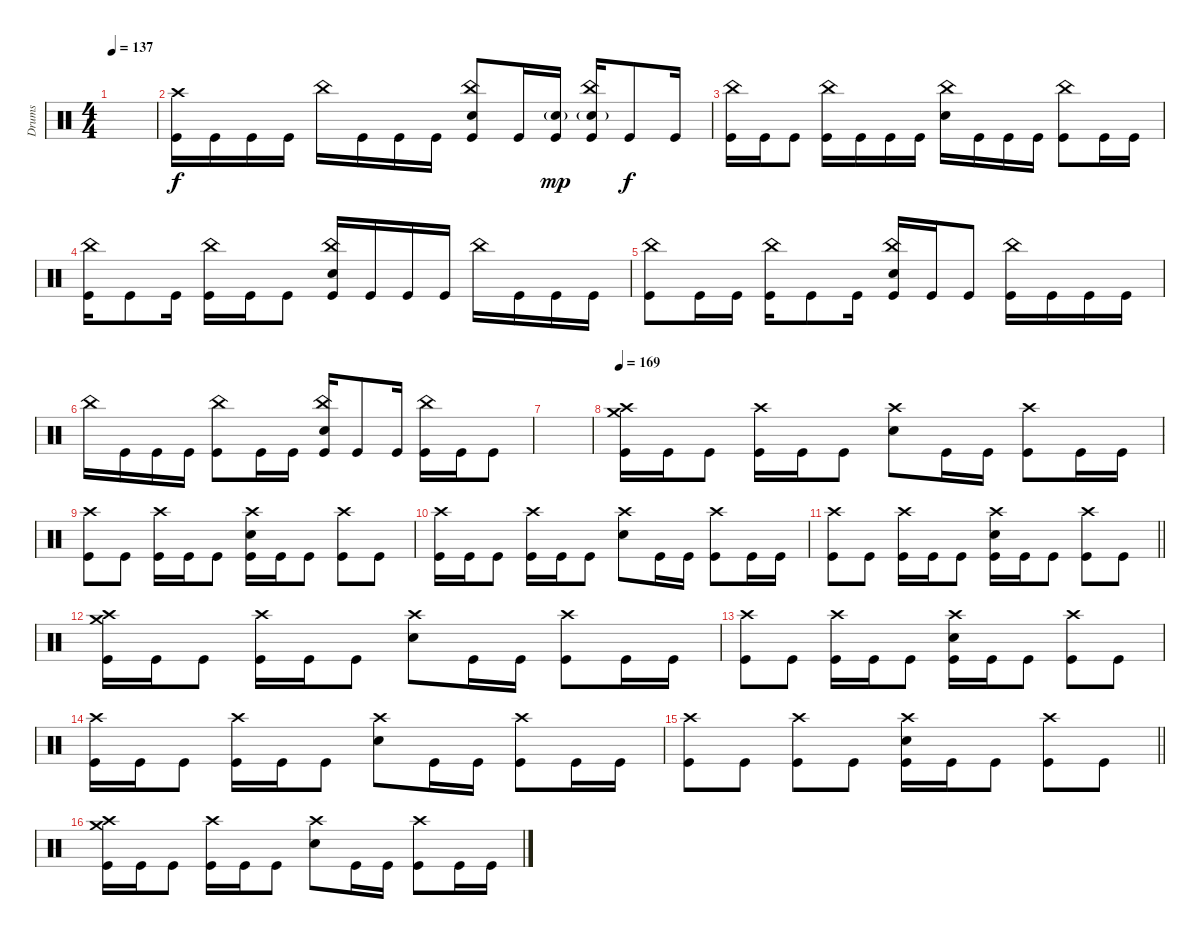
\track ("Drums" "Drums") {instrument percussion}
\staff
\articulation defaults
\ts (4 4)
\tempo 137
\clef neutral
\ks c
|
("Crash high (hit)" "Kick (hit)").16 "Kick (hit)".16 "Kick (hit)".16 "Kick (hit)".16 "China (hit)".16 "Kick (hit)".16 "Kick (hit)".16 "Kick (hit)".16 ("China (hit)" "Electric Snare (hit)" "Kick (hit)").8 "Kick (hit)".16 ("Electric Snare (hit)"{g} "Kick (hit)").16{dy mp} ("China (hit)" "Electric Snare (hit)"{g} "Kick (hit)").16 "Kick (hit)".8{dy f} "Kick (hit)".16 |
("China (hit)" "Kick (hit)").16 "Kick (hit)".16 "Kick (hit)".8 ("China (hit)" "Kick (hit)").16 "Kick (hit)".16 "Kick (hit)".16 "Kick (hit)".16 ("China (hit)" "Electric Snare (hit)").16 "Kick (hit)".16 "Kick (hit)".16 "Kick (hit)".16 ("China (hit)" "Kick (hit)").8 "Kick (hit)".16 "Kick (hit)".16 |
("China (hit)" "Kick (hit)").16 "Kick (hit)".8 "Kick (hit)".16 ("China (hit)" "Kick (hit)").16 "Kick (hit)".16 "Kick (hit)".8 ("China (hit)" "Electric Snare (hit)" "Kick (hit)").16 "Kick (hit)".16 "Kick (hit)".16 "Kick (hit)".16 "China (hit)".16 "Kick (hit)".16 "Kick (hit)".16 "Kick (hit)".16 |
("China (hit)" "Kick (hit)").8 "Kick (hit)".16 "Kick (hit)".16 ("China (hit)" "Kick (hit)").16 "Kick (hit)".8 "Kick (hit)".16 ("China (hit)" "Electric Snare (hit)" "Kick (hit)").16 "Kick (hit)".16 "Kick (hit)".8 ("China (hit)" "Kick (hit)").16 "Kick (hit)".16 "Kick (hit)".16 "Kick (hit)".16 |
"China (hit)".16 "Kick (hit)".16 "Kick (hit)".16 "Kick (hit)".16 ("China (hit)" "Kick (hit)").8 "Kick (hit)".16 "Kick (hit)".16 ("China (hit)" "Electric Snare (hit)" "Kick (hit)").16 "Kick (hit)".8 "Kick (hit)".16 ("China (hit)" "Kick (hit)").16 "Kick (hit)".16 "Kick (hit)".8 |
|
\tempo 169
("Crash high (hit)" "Crash medium (hit)" "Kick (hit)").16 "Kick (hit)".16 "Kick (hit)".8 ("Crash high (hit)" "Kick (hit)").16 "Kick (hit)".16 "Kick (hit)".8 ("Crash high (hit)" "Electric Snare (hit)").8 "Kick (hit)".16 "Kick (hit)".16 ("Crash high (hit)" "Kick (hit)").8 "Kick (hit)".16 "Kick (hit)".16 |
("Crash high (hit)" "Kick (hit)").8 "Kick (hit)".8 ("Crash high (hit)" "Kick (hit)").16 "Kick (hit)".16 "Kick (hit)".8 ("Crash high (hit)" "Electric Snare (hit)" "Kick (hit)").16 "Kick (hit)".16 "Kick (hit)".8 ("Crash high (hit)" "Kick (hit)").8 "Kick (hit)".8 |
("Crash high (hit)" "Kick (hit)").16 "Kick (hit)".16 "Kick (hit)".8 ("Crash high (hit)" "Kick (hit)").16 "Kick (hit)".16 "Kick (hit)".8 ("Crash high (hit)" "Electric Snare (hit)").8 "Kick (hit)".16 "Kick (hit)".16 ("Crash high (hit)" "Kick (hit)").8 "Kick (hit)".16 "Kick (hit)".16 |
\barLineRight lightlight
("Crash high (hit)" "Kick (hit)").8 "Kick (hit)".8 ("Crash high (hit)" "Kick (hit)").16 "Kick (hit)".16 "Kick (hit)".8 ("Crash high (hit)" "Electric Snare (hit)" "Kick (hit)").16 "Kick (hit)".16 "Kick (hit)".8 ("Crash high (hit)" "Kick (hit)").8 "Kick (hit)".8 |
("Crash high (hit)" "Crash medium (hit)" "Kick (hit)").16 "Kick (hit)".16 "Kick (hit)".8 ("Crash high (hit)" "Kick (hit)").16 "Kick (hit)".16 "Kick (hit)".8 ("Crash high (hit)" "Electric Snare (hit)").8 "Kick (hit)".16 "Kick (hit)".16 ("Crash high (hit)" "Kick (hit)").8 "Kick (hit)".16 "Kick (hit)".16 |
("Crash high (hit)" "Kick (hit)").8 "Kick (hit)".8 ("Crash high (hit)" "Kick (hit)").16 "Kick (hit)".16 "Kick (hit)".8 ("Crash high (hit)" "Electric Snare (hit)" "Kick (hit)").16 "Kick (hit)".16 "Kick (hit)".8 ("Crash high (hit)" "Kick (hit)").8 "Kick (hit)".8 |
("Crash high (hit)" "Kick (hit)").16 "Kick (hit)".16 "Kick (hit)".8 ("Crash high (hit)" "Kick (hit)").16 "Kick (hit)".16 "Kick (hit)".8 ("Crash high (hit)" "Electric Snare (hit)").8 "Kick (hit)".16 "Kick (hit)".16 ("Crash high (hit)" "Kick (hit)").8 "Kick (hit)".16 "Kick (hit)".16 |
\barLineRight lightlight
("Crash high (hit)" "Kick (hit)").8 "Kick (hit)".8 ("Crash high (hit)" "Kick (hit)").8 "Kick (hit)".8 ("Crash high (hit)" "Electric Snare (hit)" "Kick (hit)").16 "Kick (hit)".16 "Kick (hit)".8 ("Crash high (hit)" "Kick (hit)").8 "Kick (hit)".8 |
("Crash high (hit)" "Crash medium (hit)" "Kick (hit)").16 "Kick (hit)".16 "Kick (hit)".8 ("Crash high (hit)" "Kick (hit)").16 "Kick (hit)".16 "Kick (hit)".8 ("Crash high (hit)" "Electric Snare (hit)").8 "Kick (hit)".16 "Kick (hit)".16 ("Crash high (hit)" "Kick (hit)").8 "Kick (hit)".16 "Kick (hit)".16
